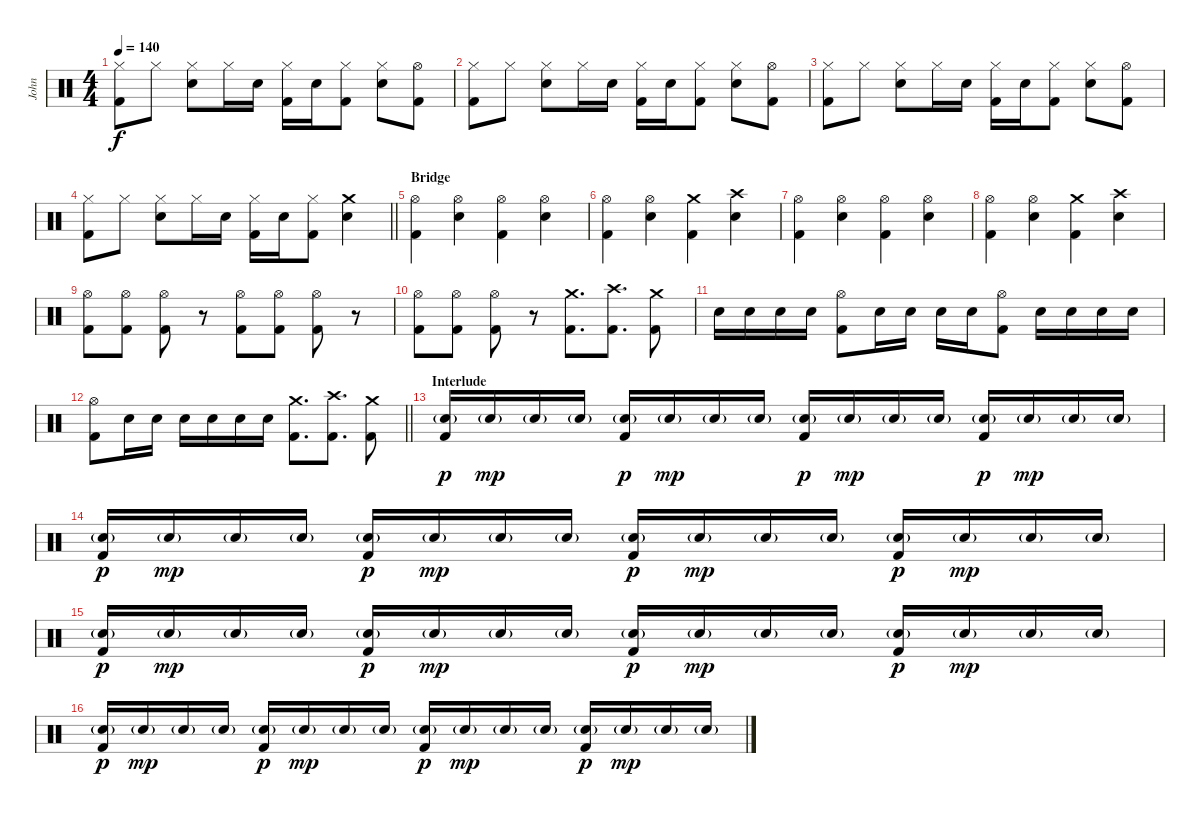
\track ("John" "John") {instrument percussion}
\staff {score}
\articulation defaults
\ts (4 4)
\tempo 140
\clef neutral
\ks c
("Hi-Hat (closed)" "Kick (hit) 2").8{dy f} "Hi-Hat (closed)".8 ("Hi-Hat (closed)" "Electric Snare (hit)").8 "Hi-Hat (closed)".16 "Electric Snare (hit)".16 ("Hi-Hat (closed)" "Kick (hit) 2").16 "Electric Snare (hit)".16 ("Hi-Hat (closed)" "Kick (hit) 2").8 ("Hi-Hat (closed)" "Electric Snare (hit)").8 ("Hi-Hat (open)" "Kick (hit) 2").8 |
("Hi-Hat (closed)" "Kick (hit) 2").8 "Hi-Hat (closed)".8 ("Hi-Hat (closed)" "Electric Snare (hit)").8 "Hi-Hat (closed)".16 "Electric Snare (hit)".16 ("Hi-Hat (closed)" "Kick (hit) 2").16 "Electric Snare (hit)".16 ("Hi-Hat (closed)" "Kick (hit) 2").8 ("Hi-Hat (closed)" "Electric Snare (hit)").8 ("Hi-Hat (open)" "Kick (hit) 2").8 |
("Hi-Hat (closed)" "Kick (hit) 2").8 "Hi-Hat (closed)".8 ("Hi-Hat (closed)" "Electric Snare (hit)").8 "Hi-Hat (closed)".16 "Electric Snare (hit)".16 ("Hi-Hat (closed)" "Kick (hit) 2").16 "Electric Snare (hit)".16 ("Hi-Hat (closed)" "Kick (hit) 2").8 ("Hi-Hat (closed)" "Electric Snare (hit)").8 ("Hi-Hat (open)" "Kick (hit) 2").8 |
\barLineRight lightlight
("Hi-Hat (closed)" "Kick (hit) 2").8 "Hi-Hat (closed)".8 ("Hi-Hat (closed)" "Electric Snare (hit)").8 "Hi-Hat (closed)".16 "Electric Snare (hit)".16 ("Hi-Hat (closed)" "Kick (hit) 2").16 "Electric Snare (hit)".16 ("Hi-Hat (closed)" "Kick (hit) 2").8 ("Crash medium (hit)" "Electric Snare (hit)").4 |
\section ("" "Bridge")
("Hi-Hat (open)" "Kick (hit) 2").4 ("Hi-Hat (open)" "Electric Snare (hit)").4 ("Hi-Hat (open)" "Kick (hit) 2").4 ("Hi-Hat (open)" "Electric Snare (hit)").4 |
("Hi-Hat (open)" "Kick (hit) 2").4 ("Hi-Hat (open)" "Electric Snare (hit)").4 ("Crash medium (hit)" "Kick (hit) 2").4 ("Crash high (hit)" "Electric Snare (hit)").4 |
("Hi-Hat (open)" "Kick (hit) 2").4 ("Hi-Hat (open)" "Electric Snare (hit)").4 ("Hi-Hat (open)" "Kick (hit) 2").4 ("Hi-Hat (open)" "Electric Snare (hit)").4 |
("Hi-Hat (open)" "Kick (hit) 2").4 ("Hi-Hat (open)" "Electric Snare (hit)").4 ("Crash medium (hit)" "Kick (hit) 2").4 ("Crash high (hit)" "Electric Snare (hit)").4 |
("Hi-Hat (open)" "Kick (hit) 2").8 ("Hi-Hat (open)" "Kick (hit) 2").8 ("Hi-Hat (open)" "Kick (hit) 2").8 r.8 ("Hi-Hat (open)" "Kick (hit) 2").8 ("Hi-Hat (open)" "Kick (hit) 2").8 ("Hi-Hat (open)" "Kick (hit) 2").8 r.8 |
("Hi-Hat (open)" "Kick (hit) 2").8 ("Hi-Hat (open)" "Kick (hit) 2").8 ("Hi-Hat (open)" "Kick (hit) 2").8 r.8 ("Crash medium (hit)" "Kick (hit) 2").8{d} ("Crash high (hit)" "Kick (hit) 2").8{d} ("Crash medium (hit)" "Kick (hit) 2").8 |
"Electric Snare (hit)".16 "Electric Snare (hit)".16 "Electric Snare (hit)".16 "Electric Snare (hit)".16 ("Hi-Hat (open)" "Kick (hit) 2").8 "Electric Snare (hit)".16 "Electric Snare (hit)".16 "Electric Snare (hit)".16 "Electric Snare (hit)".16 ("Hi-Hat (open)" "Kick (hit) 2").8 "Electric Snare (hit)".16 "Electric Snare (hit)".16 "Electric Snare (hit)".16 "Electric Snare (hit)".16 |
\barLineRight lightlight
("Hi-Hat (open)" "Kick (hit) 2").8 "Electric Snare (hit)".16 "Electric Snare (hit)".16 "Electric Snare (hit)".16 "Electric Snare (hit)".16 "Electric Snare (hit)".16 "Electric Snare (hit)".16 ("Crash medium (hit)" "Kick (hit) 2").8{d} ("Crash high (hit)" "Kick (hit) 2").8{d} ("Crash medium (hit)" "Kick (hit) 2").8 |
\section ("" "Interlude")
("Electric Snare (hit)"{g} "Kick (hit) 2").16{dy p} "Electric Snare (hit)"{g}.16{dy mp} "Electric Snare (hit)"{g}.16 "Electric Snare (hit)"{g}.16 ("Electric Snare (hit)"{g} "Kick (hit) 2").16{dy p} "Electric Snare (hit)"{g}.16{dy mp} "Electric Snare (hit)"{g}.16 "Electric Snare (hit)"{g}.16 ("Electric Snare (hit)"{g} "Kick (hit) 2").16{dy p} "Electric Snare (hit)"{g}.16{dy mp} "Electric Snare (hit)"{g}.16 "Electric Snare (hit)"{g}.16 ("Electric Snare (hit)"{g} "Kick (hit) 2").16{dy p} "Electric Snare (hit)"{g}.16{dy mp} "Electric Snare (hit)"{g}.16 "Electric Snare (hit)"{g}.16 |
("Electric Snare (hit)"{g} "Kick (hit) 2").16{dy p} "Electric Snare (hit)"{g}.16{dy mp} "Electric Snare (hit)"{g}.16 "Electric Snare (hit)"{g}.16 ("Electric Snare (hit)"{g} "Kick (hit) 2").16{dy p} "Electric Snare (hit)"{g}.16{dy mp} "Electric Snare (hit)"{g}.16 "Electric Snare (hit)"{g}.16 ("Electric Snare (hit)"{g} "Kick (hit) 2").16{dy p} "Electric Snare (hit)"{g}.16{dy mp} "Electric Snare (hit)"{g}.16 "Electric Snare (hit)"{g}.16 ("Electric Snare (hit)"{g} "Kick (hit) 2").16{dy p} "Electric Snare (hit)"{g}.16{dy mp} "Electric Snare (hit)"{g}.16 "Electric Snare (hit)"{g}.16 |
("Electric Snare (hit)"{g} "Kick (hit) 2").16{dy p} "Electric Snare (hit)"{g}.16{dy mp} "Electric Snare (hit)"{g}.16 "Electric Snare (hit)"{g}.16 ("Electric Snare (hit)"{g} "Kick (hit) 2").16{dy p} "Electric Snare (hit)"{g}.16{dy mp} "Electric Snare (hit)"{g}.16 "Electric Snare (hit)"{g}.16 ("Electric Snare (hit)"{g} "Kick (hit) 2").16{dy p} "Electric Snare (hit)"{g}.16{dy mp} "Electric Snare (hit)"{g}.16 "Electric Snare (hit)"{g}.16 ("Electric Snare (hit)"{g} "Kick (hit) 2").16{dy p} "Electric Snare (hit)"{g}.16{dy mp} "Electric Snare (hit)"{g}.16 "Electric Snare (hit)"{g}.16 |
("Electric Snare (hit)"{g} "Kick (hit) 2").16{dy p} "Electric Snare (hit)"{g}.16{dy mp} "Electric Snare (hit)"{g}.16 "Electric Snare (hit)"{g}.16 ("Electric Snare (hit)"{g} "Kick (hit) 2").16{dy p} "Electric Snare (hit)"{g}.16{dy mp} "Electric Snare (hit)"{g}.16 "Electric Snare (hit)"{g}.16 ("Electric Snare (hit)"{g} "Kick (hit) 2").16{dy p} "Electric Snare (hit)"{g}.16{dy mp} "Electric Snare (hit)"{g}.16 "Electric Snare (hit)"{g}.16 ("Electric Snare (hit)"{g} "Kick (hit) 2").16{dy p} "Electric Snare (hit)"{g}.16{dy mp} "Electric Snare (hit)"{g}.16 "Electric Snare (hit)"{g}.16
